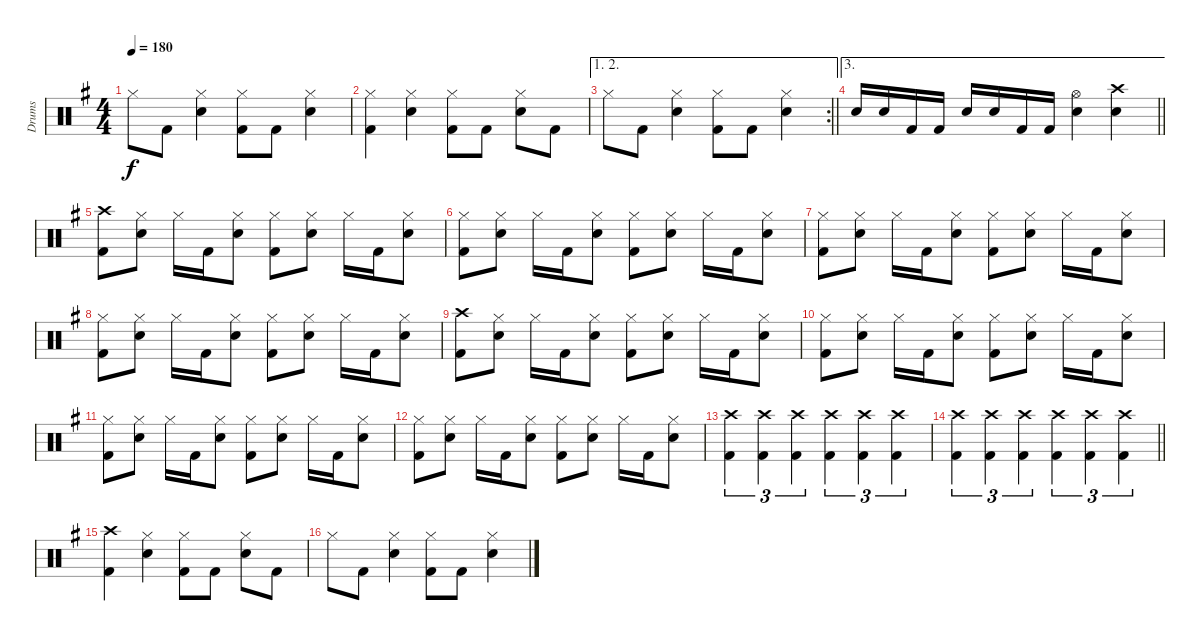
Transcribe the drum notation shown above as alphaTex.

\track ("Drums" "Drums") {instrument percussion}
\staff {score}
\articulation defaults
\ts (4 4)
\tempo 180
\clef neutral
\ks g "Hi-Hat (closed)".8{dy f} "Kick (hit) 2".8
("Hi-Hat (closed)" "Snare (hit) 2").4 ("Hi-Hat (closed)" "Kick (hit) 2").8 "Kick (hit) 2".8 ("Hi-Hat (closed)" "Snare (hit) 2").4 |
("Hi-Hat (closed)" "Kick (hit) 2").4 ("Hi-Hat (closed)" "Snare (hit) 2").4 ("Hi-Hat (closed)" "Kick (hit) 2").8 "Kick (hit) 2".8 ("Hi-Hat (closed)" "Snare (hit) 2").8 "Kick (hit) 2".8 |
\ae (1 2)
\rc 2
\barLineRight lightlight "Hi-Hat (closed)".8 "Kick (hit) 2".8
("Hi-Hat (closed)" "Snare (hit) 2").4 ("Hi-Hat (closed)" "Kick (hit) 2").8 "Kick (hit) 2".8 ("Hi-Hat (closed)" "Snare (hit) 2").4 |
\ae 3
\barLineRight lightlight "Snare (hit) 2".16 "Snare (hit) 2".16 "Kick (hit) 2".16 "Kick (hit) 2".16 "Snare (hit) 2".16 "Snare (hit) 2".16 "Kick (hit) 2".16 "Kick (hit) 2".16
("Hi-Hat (open)" "Snare (hit) 2").4 ("Crash high (hit)" "Snare (hit) 2").4 |
("Crash high (hit)" "Kick (hit) 2").8 ("Hi-Hat (closed)" "Snare (hit) 2").8 "Hi-Hat (closed)".16 "Kick (hit) 2".16 ("Hi-Hat (closed)" "Snare (hit) 2").8 ("Hi-Hat (closed)" "Kick (hit) 2").8 ("Hi-Hat (closed)" "Snare (hit) 2").8 "Hi-Hat (closed)".16 "Kick (hit) 2".16 ("Hi-Hat (closed)" "Snare (hit) 2").8 |
("Hi-Hat (closed)" "Kick (hit) 2").8 ("Hi-Hat (closed)" "Snare (hit) 2").8 "Hi-Hat (closed)".16 "Kick (hit) 2".16 ("Hi-Hat (closed)" "Snare (hit) 2").8 ("Hi-Hat (closed)" "Kick (hit) 2").8 ("Hi-Hat (closed)" "Snare (hit) 2").8 "Hi-Hat (closed)".16 "Kick (hit) 2".16 ("Hi-Hat (closed)" "Snare (hit) 2").8 |
("Hi-Hat (closed)" "Kick (hit) 2").8 ("Hi-Hat (closed)" "Snare (hit) 2").8 "Hi-Hat (closed)".16 "Kick (hit) 2".16 ("Hi-Hat (closed)" "Snare (hit) 2").8 ("Hi-Hat (closed)" "Kick (hit) 2").8 ("Hi-Hat (closed)" "Snare (hit) 2").8 "Hi-Hat (closed)".16 "Kick (hit) 2".16 ("Hi-Hat (closed)" "Snare (hit) 2").8 |
("Hi-Hat (closed)" "Kick (hit) 2").8 ("Hi-Hat (closed)" "Snare (hit) 2").8 "Hi-Hat (closed)".16 "Kick (hit) 2".16 ("Hi-Hat (closed)" "Snare (hit) 2").8 ("Hi-Hat (closed)" "Kick (hit) 2").8 ("Hi-Hat (closed)" "Snare (hit) 2").8 "Hi-Hat (closed)".16 "Kick (hit) 2".16 ("Hi-Hat (closed)" "Snare (hit) 2").8 |
("Crash high (hit)" "Kick (hit) 2").8 ("Hi-Hat (closed)" "Snare (hit) 2").8 "Hi-Hat (closed)".16 "Kick (hit) 2".16 ("Hi-Hat (closed)" "Snare (hit) 2").8 ("Hi-Hat (closed)" "Kick (hit) 2").8 ("Hi-Hat (closed)" "Snare (hit) 2").8 "Hi-Hat (closed)".16 "Kick (hit) 2".16 ("Hi-Hat (closed)" "Snare (hit) 2").8 |
("Hi-Hat (closed)" "Kick (hit) 2").8 ("Hi-Hat (closed)" "Snare (hit) 2").8 "Hi-Hat (closed)".16 "Kick (hit) 2".16 ("Hi-Hat (closed)" "Snare (hit) 2").8 ("Hi-Hat (closed)" "Kick (hit) 2").8 ("Hi-Hat (closed)" "Snare (hit) 2").8 "Hi-Hat (closed)".16 "Kick (hit) 2".16 ("Hi-Hat (closed)" "Snare (hit) 2").8 |
("Hi-Hat (closed)" "Kick (hit) 2").8 ("Hi-Hat (closed)" "Snare (hit) 2").8 "Hi-Hat (closed)".16 "Kick (hit) 2".16 ("Hi-Hat (closed)" "Snare (hit) 2").8 ("Hi-Hat (closed)" "Kick (hit) 2").8 ("Hi-Hat (closed)" "Snare (hit) 2").8 "Hi-Hat (closed)".16 "Kick (hit) 2".16 ("Hi-Hat (closed)" "Snare (hit) 2").8 |
("Hi-Hat (closed)" "Kick (hit) 2").8 ("Hi-Hat (closed)" "Snare (hit) 2").8 "Hi-Hat (closed)".16 "Kick (hit) 2".16 ("Hi-Hat (closed)" "Snare (hit) 2").8 ("Hi-Hat (closed)" "Kick (hit) 2").8 ("Hi-Hat (closed)" "Snare (hit) 2").8 "Hi-Hat (closed)".16 "Kick (hit) 2".16 ("Hi-Hat (closed)" "Snare (hit) 2").8 |
("Crash high (hit)" "Kick (hit) 2").4{tu (3 2)} ("Crash high (hit)" "Kick (hit) 2").4{tu (3 2)} ("Crash high (hit)" "Kick (hit) 2").4{tu (3 2)} ("Crash high (hit)" "Kick (hit) 2").4{tu (3 2)} ("Crash high (hit)" "Kick (hit) 2").4{tu (3 2)} ("Crash high (hit)" "Kick (hit) 2").4{tu (3 2)} |
\barLineRight lightlight
("Crash high (hit)" "Kick (hit) 2").4{tu (3 2)} ("Crash high (hit)" "Kick (hit) 2").4{tu (3 2)} ("Crash high (hit)" "Kick (hit) 2").4{tu (3 2)} ("Crash high (hit)" "Kick (hit) 2").4{tu (3 2)} ("Crash high (hit)" "Kick (hit) 2").4{tu (3 2)} ("Crash high (hit)" "Kick (hit) 2").4{tu (3 2)} |
("Crash high (hit)" "Kick (hit) 2").4 ("Hi-Hat (closed)" "Snare (hit) 2").4 ("Hi-Hat (closed)" "Kick (hit) 2").8 "Kick (hit) 2".8 ("Hi-Hat (closed)" "Snare (hit) 2").8 "Kick (hit) 2".8 |
"Hi-Hat (closed)".8 "Kick (hit) 2".8 ("Hi-Hat (closed)" "Snare (hit) 2").4 ("Hi-Hat (closed)" "Kick (hit) 2").8 "Kick (hit) 2".8 ("Hi-Hat (closed)" "Snare (hit) 2").4
